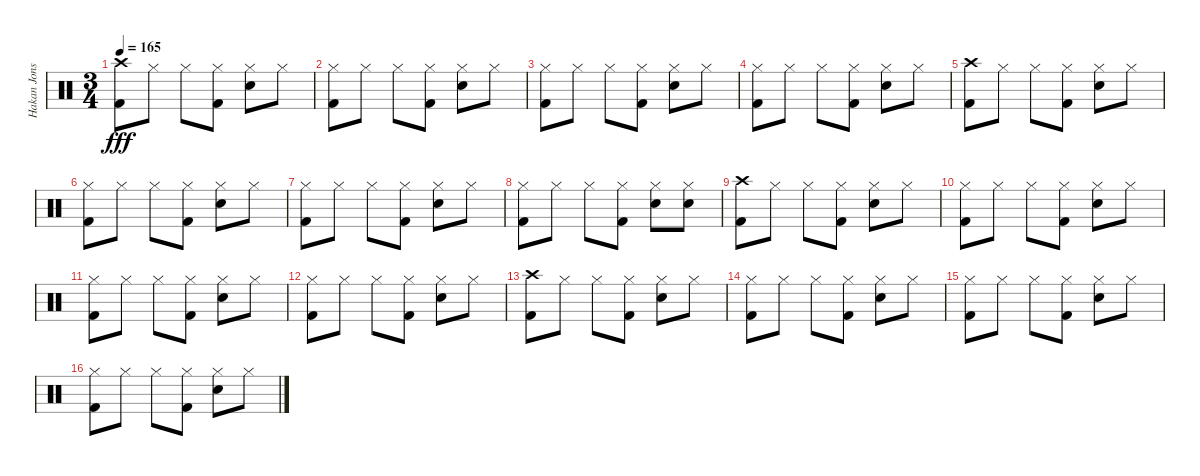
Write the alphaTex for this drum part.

\track ("Hakan Jonsson" "Hakan Jons") {instrument percussion}
\staff {score}
\articulation defaults
\ts (3 4)
\tempo 165
\clef neutral
\ks c
("Crash high (hit)" "Kick (hit) 2").8{dy fff} "Hi-Hat (closed)".8 "Hi-Hat (closed)".8 ("Hi-Hat (closed)" "Kick (hit) 2").8 ("Hi-Hat (closed)" "Electric Snare (hit)").8 "Hi-Hat (closed)".8 |
("Hi-Hat (closed)" "Kick (hit) 2").8 "Hi-Hat (closed)".8 "Hi-Hat (closed)".8 ("Hi-Hat (closed)" "Kick (hit) 2").8 ("Hi-Hat (closed)" "Electric Snare (hit)").8 "Hi-Hat (closed)".8 |
("Hi-Hat (closed)" "Kick (hit) 2").8 "Hi-Hat (closed)".8 "Hi-Hat (closed)".8 ("Hi-Hat (closed)" "Kick (hit) 2").8 ("Hi-Hat (closed)" "Electric Snare (hit)").8 "Hi-Hat (closed)".8 |
("Hi-Hat (closed)" "Kick (hit) 2").8 "Hi-Hat (closed)".8 "Hi-Hat (closed)".8 ("Hi-Hat (closed)" "Kick (hit) 2").8 ("Hi-Hat (closed)" "Electric Snare (hit)").8 "Hi-Hat (closed)".8 |
("Crash high (hit)" "Kick (hit) 2").8 "Hi-Hat (closed)".8 "Hi-Hat (closed)".8 ("Hi-Hat (closed)" "Kick (hit) 2").8 ("Hi-Hat (closed)" "Electric Snare (hit)").8 "Hi-Hat (closed)".8 |
("Hi-Hat (closed)" "Kick (hit) 2").8 "Hi-Hat (closed)".8 "Hi-Hat (closed)".8 ("Hi-Hat (closed)" "Kick (hit) 2").8 ("Hi-Hat (closed)" "Electric Snare (hit)").8 "Hi-Hat (closed)".8 |
("Hi-Hat (closed)" "Kick (hit) 2").8 "Hi-Hat (closed)".8 "Hi-Hat (closed)".8 ("Hi-Hat (closed)" "Kick (hit) 2").8 ("Hi-Hat (closed)" "Electric Snare (hit)").8 "Hi-Hat (closed)".8 |
("Hi-Hat (closed)" "Kick (hit) 2").8 "Hi-Hat (closed)".8 "Hi-Hat (closed)".8 ("Hi-Hat (closed)" "Kick (hit) 2").8 ("Hi-Hat (closed)" "Electric Snare (hit)").8 ("Hi-Hat (closed)" "Electric Snare (hit)").8 |
("Crash high (hit)" "Kick (hit) 2").8 "Hi-Hat (closed)".8 "Hi-Hat (closed)".8 ("Hi-Hat (closed)" "Kick (hit) 2").8 ("Hi-Hat (closed)" "Electric Snare (hit)").8 "Hi-Hat (closed)".8 |
("Hi-Hat (closed)" "Kick (hit) 2").8 "Hi-Hat (closed)".8 "Hi-Hat (closed)".8 ("Hi-Hat (closed)" "Kick (hit) 2").8 ("Hi-Hat (closed)" "Electric Snare (hit)").8 "Hi-Hat (closed)".8 |
("Hi-Hat (closed)" "Kick (hit) 2").8 "Hi-Hat (closed)".8 "Hi-Hat (closed)".8 ("Hi-Hat (closed)" "Kick (hit) 2").8 ("Hi-Hat (closed)" "Electric Snare (hit)").8 "Hi-Hat (closed)".8 |
("Hi-Hat (closed)" "Kick (hit) 2").8 "Hi-Hat (closed)".8 "Hi-Hat (closed)".8 ("Hi-Hat (closed)" "Kick (hit) 2").8 ("Hi-Hat (closed)" "Electric Snare (hit)").8 "Hi-Hat (closed)".8 |
("Crash high (hit)" "Kick (hit) 2").8 "Hi-Hat (closed)".8 "Hi-Hat (closed)".8 ("Hi-Hat (closed)" "Kick (hit) 2").8 ("Hi-Hat (closed)" "Electric Snare (hit)").8 "Hi-Hat (closed)".8 |
("Hi-Hat (closed)" "Kick (hit) 2").8 "Hi-Hat (closed)".8 "Hi-Hat (closed)".8 ("Hi-Hat (closed)" "Kick (hit) 2").8 ("Hi-Hat (closed)" "Electric Snare (hit)").8 "Hi-Hat (closed)".8 |
("Hi-Hat (closed)" "Kick (hit) 2").8 "Hi-Hat (closed)".8 "Hi-Hat (closed)".8 ("Hi-Hat (closed)" "Kick (hit) 2").8 ("Hi-Hat (closed)" "Electric Snare (hit)").8 "Hi-Hat (closed)".8 |
("Hi-Hat (closed)" "Kick (hit) 2").8 "Hi-Hat (closed)".8 "Hi-Hat (closed)".8 ("Hi-Hat (closed)" "Kick (hit) 2").8 ("Hi-Hat (closed)" "Electric Snare (hit)").8 "Hi-Hat (closed)".8
